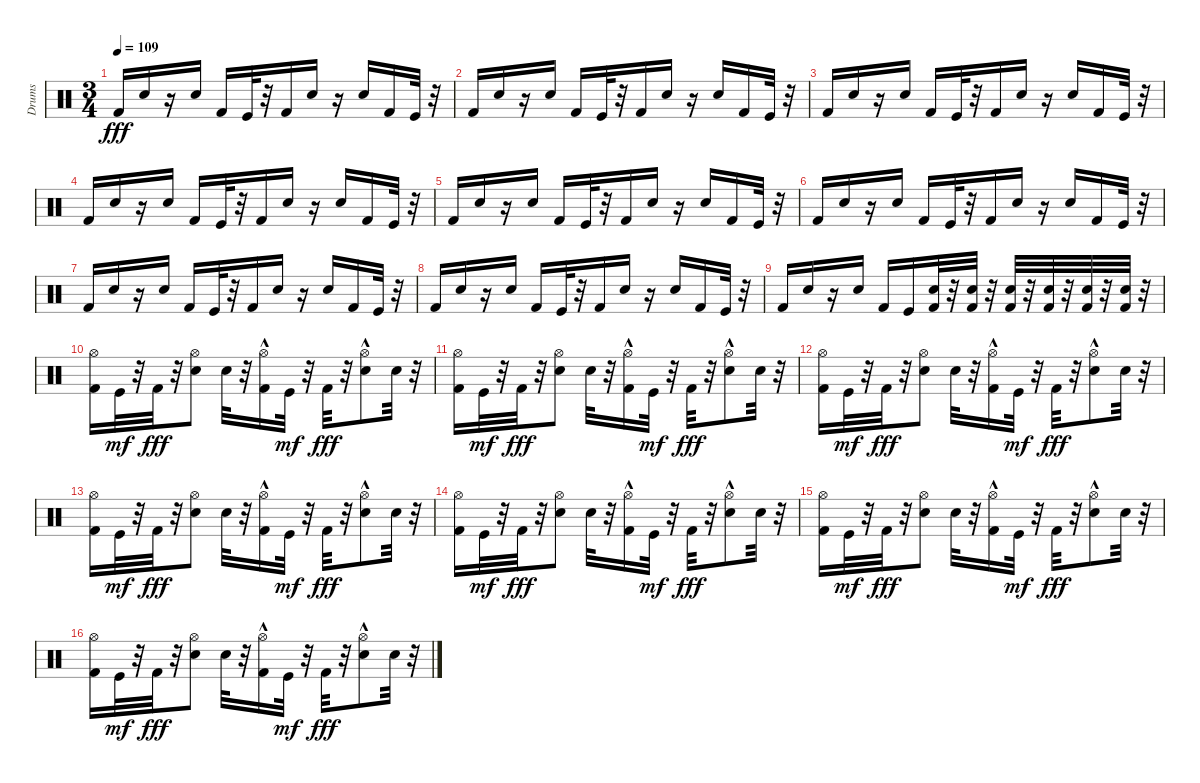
\track ("Drums" "Drums") {instrument percussion}
\staff {score}
\articulation defaults
\ts (3 4)
\tempo 109
\clef neutral
\ks c "Kick (hit) 2".16{dy fff} "Electric Snare (hit)".16
r.16 "Electric Snare (hit)".16 "Kick (hit) 2".16 "Kick (hit)".32 r.32 "Kick (hit) 2".16 "Electric Snare (hit)".16 r.16 "Electric Snare (hit)".16 "Kick (hit) 2".16 "Kick (hit)".32 r.32 |
"Kick (hit) 2".16 "Electric Snare (hit)".16 r.16 "Electric Snare (hit)".16 "Kick (hit) 2".16 "Kick (hit)".32 r.32 "Kick (hit) 2".16 "Electric Snare (hit)".16 r.16 "Electric Snare (hit)".16 "Kick (hit) 2".16 "Kick (hit)".32 r.32 |
"Kick (hit) 2".16 "Electric Snare (hit)".16 r.16 "Electric Snare (hit)".16 "Kick (hit) 2".16 "Kick (hit)".32 r.32 "Kick (hit) 2".16 "Electric Snare (hit)".16 r.16 "Electric Snare (hit)".16 "Kick (hit) 2".16 "Kick (hit)".32 r.32 |
"Kick (hit) 2".16 "Electric Snare (hit)".16 r.16 "Electric Snare (hit)".16 "Kick (hit) 2".16 "Kick (hit)".32 r.32 "Kick (hit) 2".16 "Electric Snare (hit)".16 r.16 "Electric Snare (hit)".16 "Kick (hit) 2".16 "Kick (hit)".32 r.32 |
"Kick (hit) 2".16 "Electric Snare (hit)".16 r.16 "Electric Snare (hit)".16 "Kick (hit) 2".16 "Kick (hit)".32 r.32 "Kick (hit) 2".16 "Electric Snare (hit)".16 r.16 "Electric Snare (hit)".16 "Kick (hit) 2".16 "Kick (hit)".32 r.32 |
"Kick (hit) 2".16 "Electric Snare (hit)".16 r.16 "Electric Snare (hit)".16 "Kick (hit) 2".16 "Kick (hit)".32 r.32 "Kick (hit) 2".16 "Electric Snare (hit)".16 r.16 "Electric Snare (hit)".16 "Kick (hit) 2".16 "Kick (hit)".32 r.32 |
"Kick (hit) 2".16 "Electric Snare (hit)".16 r.16 "Electric Snare (hit)".16 "Kick (hit) 2".16 "Kick (hit)".32 r.32 "Kick (hit) 2".16 "Electric Snare (hit)".16 r.16 "Electric Snare (hit)".16 "Kick (hit) 2".16 "Kick (hit)".32 r.32 |
"Kick (hit) 2".16 "Electric Snare (hit)".16 r.16 "Electric Snare (hit)".16 "Kick (hit) 2".16 "Kick (hit)".32 r.32 "Kick (hit) 2".16 "Electric Snare (hit)".16 r.16 "Electric Snare (hit)".16 "Kick (hit) 2".16 "Kick (hit)".32 r.32 |
"Kick (hit) 2".16 "Electric Snare (hit)".16 r.16 "Electric Snare (hit)".16 "Kick (hit) 2".16 "Kick (hit)".16 ("Electric Snare (hit)" "Kick (hit) 2").32 r.32 ("Kick (hit) 2" "Electric Snare (hit)").32 r.32 ("Kick (hit) 2" "Electric Snare (hit)").32 r.32 ("Kick (hit) 2" "Electric Snare (hit)").32 r.32 ("Kick (hit) 2" "Electric Snare (hit)").32 r.32 ("Kick (hit) 2" "Electric Snare (hit)").32 r.32 |
("Kick (hit) 2" "Hi-Hat (open)").16 "Kick (hit)".32{dy mf} r.32 "Kick (hit) 2".32{dy fff} r.32 ("Electric Snare (hit)" "Hi-Hat (open)").8 "Electric Snare (hit)".32 r.32 ("Kick (hit) 2" "Hi-Hat (open)"{hac}).16 "Kick (hit)".32{dy mf} r.32 "Kick (hit) 2".32{dy fff} r.32 ("Electric Snare (hit)" "Hi-Hat (open)"{hac}).8 "Electric Snare (hit)".32 r.32 |
("Kick (hit) 2" "Hi-Hat (open)").16 "Kick (hit)".32{dy mf} r.32 "Kick (hit) 2".32{dy fff} r.32 ("Electric Snare (hit)" "Hi-Hat (open)").8 "Electric Snare (hit)".32 r.32 ("Kick (hit) 2" "Hi-Hat (open)"{hac}).16 "Kick (hit)".32{dy mf} r.32 "Kick (hit) 2".32{dy fff} r.32 ("Electric Snare (hit)" "Hi-Hat (open)"{hac}).8 "Electric Snare (hit)".32 r.32 |
("Kick (hit) 2" "Hi-Hat (open)").16 "Kick (hit)".32{dy mf} r.32 "Kick (hit) 2".32{dy fff} r.32 ("Electric Snare (hit)" "Hi-Hat (open)").8 "Electric Snare (hit)".32 r.32 ("Kick (hit) 2" "Hi-Hat (open)"{hac}).16 "Kick (hit)".32{dy mf} r.32 "Kick (hit) 2".32{dy fff} r.32 ("Electric Snare (hit)" "Hi-Hat (open)"{hac}).8 "Electric Snare (hit)".32 r.32 |
("Kick (hit) 2" "Hi-Hat (open)").16 "Kick (hit)".32{dy mf} r.32 "Kick (hit) 2".32{dy fff} r.32 ("Electric Snare (hit)" "Hi-Hat (open)").8 "Electric Snare (hit)".32 r.32 ("Kick (hit) 2" "Hi-Hat (open)"{hac}).16 "Kick (hit)".32{dy mf} r.32 "Kick (hit) 2".32{dy fff} r.32 ("Electric Snare (hit)" "Hi-Hat (open)"{hac}).8 "Electric Snare (hit)".32 r.32 |
("Kick (hit) 2" "Hi-Hat (open)").16 "Kick (hit)".32{dy mf} r.32 "Kick (hit) 2".32{dy fff} r.32 ("Electric Snare (hit)" "Hi-Hat (open)").8 "Electric Snare (hit)".32 r.32 ("Kick (hit) 2" "Hi-Hat (open)"{hac}).16 "Kick (hit)".32{dy mf} r.32 "Kick (hit) 2".32{dy fff} r.32 ("Electric Snare (hit)" "Hi-Hat (open)"{hac}).8 "Electric Snare (hit)".32 r.32 |
("Kick (hit) 2" "Hi-Hat (open)").16 "Kick (hit)".32{dy mf} r.32 "Kick (hit) 2".32{dy fff} r.32 ("Electric Snare (hit)" "Hi-Hat (open)").8 "Electric Snare (hit)".32 r.32 ("Kick (hit) 2" "Hi-Hat (open)"{hac}).16 "Kick (hit)".32{dy mf} r.32 "Kick (hit) 2".32{dy fff} r.32 ("Electric Snare (hit)" "Hi-Hat (open)"{hac}).8 "Electric Snare (hit)".32 r.32 |
("Kick (hit) 2" "Hi-Hat (open)").16 "Kick (hit)".32{dy mf} r.32 "Kick (hit) 2".32{dy fff} r.32 ("Electric Snare (hit)" "Hi-Hat (open)").8 "Electric Snare (hit)".32 r.32 ("Kick (hit) 2" "Hi-Hat (open)"{hac}).16 "Kick (hit)".32{dy mf} r.32 "Kick (hit) 2".32{dy fff} r.32 ("Electric Snare (hit)" "Hi-Hat (open)"{hac}).8 "Electric Snare (hit)".32 r.32
